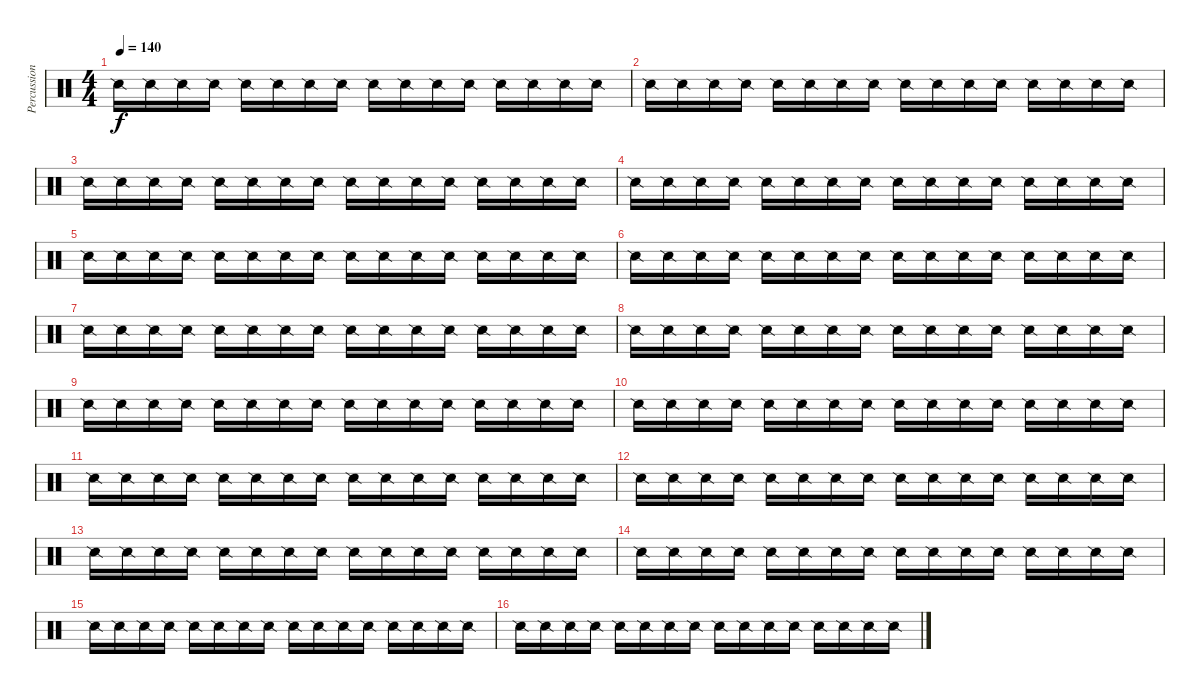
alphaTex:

\track ("Percussion" "Percussion") {instrument percussion}
\staff {score}
\articulation defaults
\ts (4 4)
\tempo 140
\clef neutral
\ks c "Snare (side stick) 2".16{dy f} "Snare (side stick) 2".16 "Snare (side stick) 2".16 "Snare (side stick) 2".16 "Snare (side stick) 2".16 "Snare (side stick) 2".16 "Snare (side stick) 2".16 "Snare (side stick) 2".16 "Snare (side stick) 2".16 "Snare (side stick) 2".16 "Snare (side stick) 2".16 "Snare (side stick) 2".16 "Snare (side stick) 2".16 "Snare (side stick) 2".16 "Snare (side stick) 2".16 "Snare (side stick) 2".16
|
"Snare (side stick) 2".16 "Snare (side stick) 2".16 "Snare (side stick) 2".16 "Snare (side stick) 2".16 "Snare (side stick) 2".16 "Snare (side stick) 2".16 "Snare (side stick) 2".16 "Snare (side stick) 2".16 "Snare (side stick) 2".16 "Snare (side stick) 2".16 "Snare (side stick) 2".16 "Snare (side stick) 2".16 "Snare (side stick) 2".16 "Snare (side stick) 2".16 "Snare (side stick) 2".16 "Snare (side stick) 2".16 |
"Snare (side stick) 2".16 "Snare (side stick) 2".16 "Snare (side stick) 2".16 "Snare (side stick) 2".16 "Snare (side stick) 2".16 "Snare (side stick) 2".16 "Snare (side stick) 2".16 "Snare (side stick) 2".16 "Snare (side stick) 2".16 "Snare (side stick) 2".16 "Snare (side stick) 2".16 "Snare (side stick) 2".16 "Snare (side stick) 2".16 "Snare (side stick) 2".16 "Snare (side stick) 2".16 "Snare (side stick) 2".16 |
"Snare (side stick) 2".16 "Snare (side stick) 2".16 "Snare (side stick) 2".16 "Snare (side stick) 2".16 "Snare (side stick) 2".16 "Snare (side stick) 2".16 "Snare (side stick) 2".16 "Snare (side stick) 2".16 "Snare (side stick) 2".16 "Snare (side stick) 2".16 "Snare (side stick) 2".16 "Snare (side stick) 2".16 "Snare (side stick) 2".16 "Snare (side stick) 2".16 "Snare (side stick) 2".16 "Snare (side stick) 2".16 |
"Snare (side stick) 2".16 "Snare (side stick) 2".16 "Snare (side stick) 2".16 "Snare (side stick) 2".16 "Snare (side stick) 2".16 "Snare (side stick) 2".16 "Snare (side stick) 2".16 "Snare (side stick) 2".16 "Snare (side stick) 2".16 "Snare (side stick) 2".16 "Snare (side stick) 2".16 "Snare (side stick) 2".16 "Snare (side stick) 2".16 "Snare (side stick) 2".16 "Snare (side stick) 2".16 "Snare (side stick) 2".16 |
"Snare (side stick) 2".16 "Snare (side stick) 2".16 "Snare (side stick) 2".16 "Snare (side stick) 2".16 "Snare (side stick) 2".16 "Snare (side stick) 2".16 "Snare (side stick) 2".16 "Snare (side stick) 2".16 "Snare (side stick) 2".16 "Snare (side stick) 2".16 "Snare (side stick) 2".16 "Snare (side stick) 2".16 "Snare (side stick) 2".16 "Snare (side stick) 2".16 "Snare (side stick) 2".16 "Snare (side stick) 2".16 |
"Snare (side stick) 2".16 "Snare (side stick) 2".16 "Snare (side stick) 2".16 "Snare (side stick) 2".16 "Snare (side stick) 2".16 "Snare (side stick) 2".16 "Snare (side stick) 2".16 "Snare (side stick) 2".16 "Snare (side stick) 2".16 "Snare (side stick) 2".16 "Snare (side stick) 2".16 "Snare (side stick) 2".16 "Snare (side stick) 2".16 "Snare (side stick) 2".16 "Snare (side stick) 2".16 "Snare (side stick) 2".16 |
"Snare (side stick) 2".16 "Snare (side stick) 2".16 "Snare (side stick) 2".16 "Snare (side stick) 2".16 "Snare (side stick) 2".16 "Snare (side stick) 2".16 "Snare (side stick) 2".16 "Snare (side stick) 2".16 "Snare (side stick) 2".16 "Snare (side stick) 2".16 "Snare (side stick) 2".16 "Snare (side stick) 2".16 "Snare (side stick) 2".16 "Snare (side stick) 2".16 "Snare (side stick) 2".16 "Snare (side stick) 2".16 |
"Snare (side stick) 2".16 "Snare (side stick) 2".16 "Snare (side stick) 2".16 "Snare (side stick) 2".16 "Snare (side stick) 2".16 "Snare (side stick) 2".16 "Snare (side stick) 2".16 "Snare (side stick) 2".16 "Snare (side stick) 2".16 "Snare (side stick) 2".16 "Snare (side stick) 2".16 "Snare (side stick) 2".16 "Snare (side stick) 2".16 "Snare (side stick) 2".16 "Snare (side stick) 2".16 "Snare (side stick) 2".16 |
"Snare (side stick) 2".16 "Snare (side stick) 2".16 "Snare (side stick) 2".16 "Snare (side stick) 2".16 "Snare (side stick) 2".16 "Snare (side stick) 2".16 "Snare (side stick) 2".16 "Snare (side stick) 2".16 "Snare (side stick) 2".16 "Snare (side stick) 2".16 "Snare (side stick) 2".16 "Snare (side stick) 2".16 "Snare (side stick) 2".16 "Snare (side stick) 2".16 "Snare (side stick) 2".16 "Snare (side stick) 2".16 |
"Snare (side stick) 2".16 "Snare (side stick) 2".16 "Snare (side stick) 2".16 "Snare (side stick) 2".16 "Snare (side stick) 2".16 "Snare (side stick) 2".16 "Snare (side stick) 2".16 "Snare (side stick) 2".16 "Snare (side stick) 2".16 "Snare (side stick) 2".16 "Snare (side stick) 2".16 "Snare (side stick) 2".16 "Snare (side stick) 2".16 "Snare (side stick) 2".16 "Snare (side stick) 2".16 "Snare (side stick) 2".16 |
"Snare (side stick) 2".16 "Snare (side stick) 2".16 "Snare (side stick) 2".16 "Snare (side stick) 2".16 "Snare (side stick) 2".16 "Snare (side stick) 2".16 "Snare (side stick) 2".16 "Snare (side stick) 2".16 "Snare (side stick) 2".16 "Snare (side stick) 2".16 "Snare (side stick) 2".16 "Snare (side stick) 2".16 "Snare (side stick) 2".16 "Snare (side stick) 2".16 "Snare (side stick) 2".16 "Snare (side stick) 2".16 |
"Snare (side stick) 2".16 "Snare (side stick) 2".16 "Snare (side stick) 2".16 "Snare (side stick) 2".16 "Snare (side stick) 2".16 "Snare (side stick) 2".16 "Snare (side stick) 2".16 "Snare (side stick) 2".16 "Snare (side stick) 2".16 "Snare (side stick) 2".16 "Snare (side stick) 2".16 "Snare (side stick) 2".16 "Snare (side stick) 2".16 "Snare (side stick) 2".16 "Snare (side stick) 2".16 "Snare (side stick) 2".16 |
"Snare (side stick) 2".16 "Snare (side stick) 2".16 "Snare (side stick) 2".16 "Snare (side stick) 2".16 "Snare (side stick) 2".16 "Snare (side stick) 2".16 "Snare (side stick) 2".16 "Snare (side stick) 2".16 "Snare (side stick) 2".16 "Snare (side stick) 2".16 "Snare (side stick) 2".16 "Snare (side stick) 2".16 "Snare (side stick) 2".16 "Snare (side stick) 2".16 "Snare (side stick) 2".16 "Snare (side stick) 2".16 |
"Snare (side stick) 2".16 "Snare (side stick) 2".16 "Snare (side stick) 2".16 "Snare (side stick) 2".16 "Snare (side stick) 2".16 "Snare (side stick) 2".16 "Snare (side stick) 2".16 "Snare (side stick) 2".16 "Snare (side stick) 2".16 "Snare (side stick) 2".16 "Snare (side stick) 2".16 "Snare (side stick) 2".16 "Snare (side stick) 2".16 "Snare (side stick) 2".16 "Snare (side stick) 2".16 "Snare (side stick) 2".16 |
"Snare (side stick) 2".16 "Snare (side stick) 2".16 "Snare (side stick) 2".16 "Snare (side stick) 2".16 "Snare (side stick) 2".16 "Snare (side stick) 2".16 "Snare (side stick) 2".16 "Snare (side stick) 2".16 "Snare (side stick) 2".16 "Snare (side stick) 2".16 "Snare (side stick) 2".16 "Snare (side stick) 2".16 "Snare (side stick) 2".16 "Snare (side stick) 2".16 "Snare (side stick) 2".16 "Snare (side stick) 2".16
